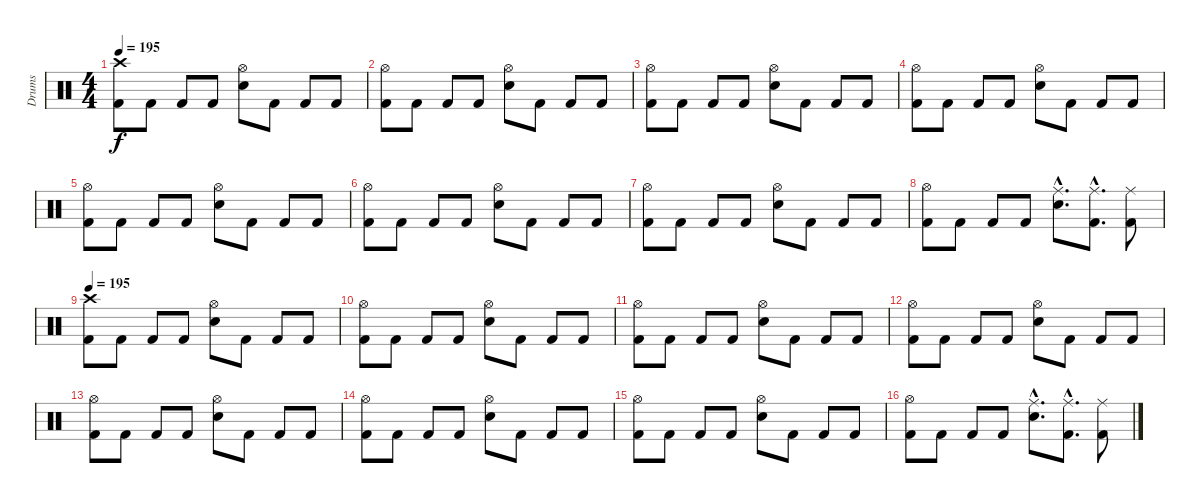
\track ("Drums" "Drums") {instrument percussion}
\staff {score}
\articulation defaults
\ts (4 4)
\tempo 195
\clef neutral
\ks c
("Crash high (hit)" "Kick (hit) 2").8{dy f} "Kick (hit) 2".8 "Kick (hit) 2".8 "Kick (hit) 2".8 ("Hi-Hat (open)" "Snare (hit) 2").8 "Kick (hit) 2".8 "Kick (hit) 2".8 "Kick (hit) 2".8 |
("Hi-Hat (open)" "Kick (hit) 2").8 "Kick (hit) 2".8 "Kick (hit) 2".8 "Kick (hit) 2".8 ("Hi-Hat (open)" "Snare (hit) 2").8 "Kick (hit) 2".8 "Kick (hit) 2".8 "Kick (hit) 2".8 |
("Hi-Hat (open)" "Kick (hit) 2").8 "Kick (hit) 2".8 "Kick (hit) 2".8 "Kick (hit) 2".8 ("Hi-Hat (open)" "Snare (hit) 2").8 "Kick (hit) 2".8 "Kick (hit) 2".8 "Kick (hit) 2".8 |
("Hi-Hat (open)" "Kick (hit) 2").8 "Kick (hit) 2".8 "Kick (hit) 2".8 "Kick (hit) 2".8 ("Hi-Hat (open)" "Snare (hit) 2").8 "Kick (hit) 2".8 "Kick (hit) 2".8 "Kick (hit) 2".8 |
("Hi-Hat (open)" "Kick (hit) 2").8 "Kick (hit) 2".8 "Kick (hit) 2".8 "Kick (hit) 2".8 ("Hi-Hat (open)" "Snare (hit) 2").8 "Kick (hit) 2".8 "Kick (hit) 2".8 "Kick (hit) 2".8 |
("Hi-Hat (open)" "Kick (hit) 2").8 "Kick (hit) 2".8 "Kick (hit) 2".8 "Kick (hit) 2".8 ("Hi-Hat (open)" "Snare (hit) 2").8 "Kick (hit) 2".8 "Kick (hit) 2".8 "Kick (hit) 2".8 |
("Hi-Hat (open)" "Kick (hit) 2").8 "Kick (hit) 2".8 "Kick (hit) 2".8 "Kick (hit) 2".8 ("Hi-Hat (open)" "Snare (hit) 2").8 "Kick (hit) 2".8 "Kick (hit) 2".8 "Kick (hit) 2".8 |
("Hi-Hat (open)" "Kick (hit) 2").8 "Kick (hit) 2".8 "Kick (hit) 2".8 "Kick (hit) 2".8 ("Ride (middle)"{hac} "Snare (hit) 2"{hac}).8{d} ("Ride (middle)"{hac} "Kick (hit) 2"{hac}).8{d} ("Ride (middle)" "Kick (hit) 2").8 |
\tempo 195
("Crash high (hit)" "Kick (hit) 2").8 "Kick (hit) 2".8 "Kick (hit) 2".8 "Kick (hit) 2".8 ("Hi-Hat (open)" "Snare (hit) 2").8 "Kick (hit) 2".8 "Kick (hit) 2".8 "Kick (hit) 2".8 |
("Hi-Hat (open)" "Kick (hit) 2").8 "Kick (hit) 2".8 "Kick (hit) 2".8 "Kick (hit) 2".8 ("Hi-Hat (open)" "Snare (hit) 2").8 "Kick (hit) 2".8 "Kick (hit) 2".8 "Kick (hit) 2".8 |
("Hi-Hat (open)" "Kick (hit) 2").8 "Kick (hit) 2".8 "Kick (hit) 2".8 "Kick (hit) 2".8 ("Hi-Hat (open)" "Snare (hit) 2").8 "Kick (hit) 2".8 "Kick (hit) 2".8 "Kick (hit) 2".8 |
("Hi-Hat (open)" "Kick (hit) 2").8 "Kick (hit) 2".8 "Kick (hit) 2".8 "Kick (hit) 2".8 ("Hi-Hat (open)" "Snare (hit) 2").8 "Kick (hit) 2".8 "Kick (hit) 2".8 "Kick (hit) 2".8 |
("Hi-Hat (open)" "Kick (hit) 2").8 "Kick (hit) 2".8 "Kick (hit) 2".8 "Kick (hit) 2".8 ("Hi-Hat (open)" "Snare (hit) 2").8 "Kick (hit) 2".8 "Kick (hit) 2".8 "Kick (hit) 2".8 |
("Hi-Hat (open)" "Kick (hit) 2").8 "Kick (hit) 2".8 "Kick (hit) 2".8 "Kick (hit) 2".8 ("Hi-Hat (open)" "Snare (hit) 2").8 "Kick (hit) 2".8 "Kick (hit) 2".8 "Kick (hit) 2".8 |
("Hi-Hat (open)" "Kick (hit) 2").8 "Kick (hit) 2".8 "Kick (hit) 2".8 "Kick (hit) 2".8 ("Hi-Hat (open)" "Snare (hit) 2").8 "Kick (hit) 2".8 "Kick (hit) 2".8 "Kick (hit) 2".8 |
("Hi-Hat (open)" "Kick (hit) 2").8 "Kick (hit) 2".8 "Kick (hit) 2".8 "Kick (hit) 2".8 ("Ride (middle)"{hac} "Snare (hit) 2"{hac}).8{d} ("Ride (middle)"{hac} "Kick (hit) 2"{hac}).8{d} ("Ride (middle)" "Kick (hit) 2").8
